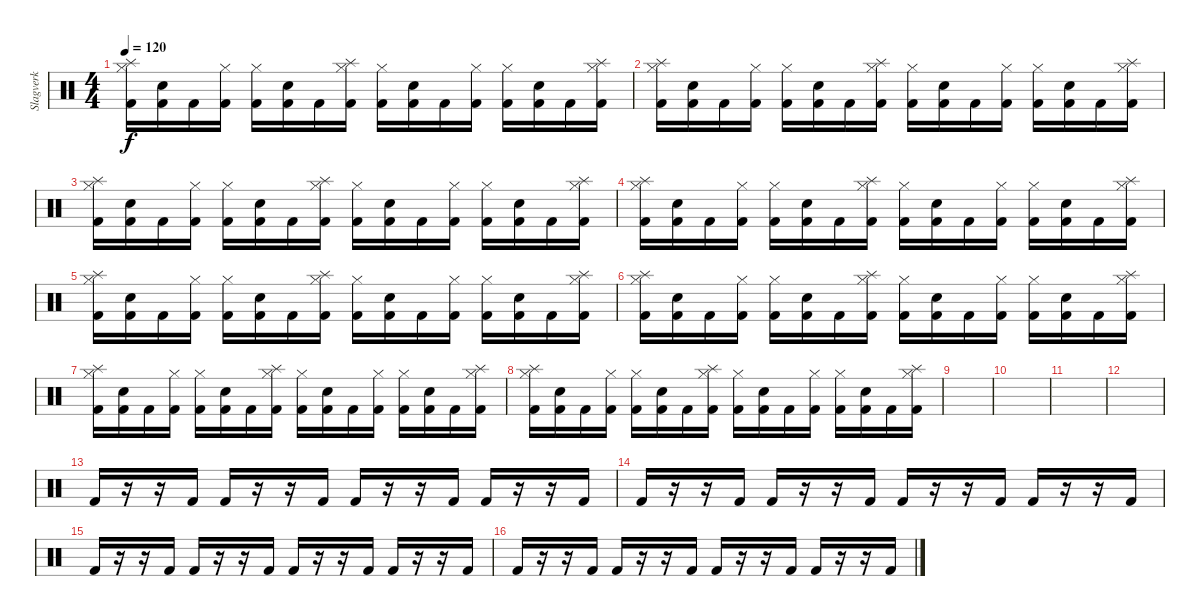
\track ("Slagverk" "Slagverk") {instrument percussion}
\staff {score}
\articulation defaults
\ts (4 4)
\tempo 120
\clef neutral
\ks c
("Kick (hit) 2" "Hi-Hat (closed)" "Splash (hit)").16{dy f} ("Kick (hit) 2" "Electric Snare (hit)").16 "Kick (hit) 2".16 ("Kick (hit) 2" "Hi-Hat (closed)").16 ("Kick (hit) 2" "Hi-Hat (closed)").16 ("Kick (hit) 2" "Electric Snare (hit)").16 "Kick (hit) 2".16 ("Kick (hit) 2" "Hi-Hat (closed)" "Splash (hit)").16 ("Kick (hit) 2" "Hi-Hat (closed)").16 ("Kick (hit) 2" "Electric Snare (hit)").16 "Kick (hit) 2".16 ("Kick (hit) 2" "Hi-Hat (closed)").16 ("Kick (hit) 2" "Hi-Hat (closed)").16 ("Kick (hit) 2" "Electric Snare (hit)").16 "Kick (hit) 2".16 ("Kick (hit) 2" "Hi-Hat (closed)" "Splash (hit)").16 |
("Kick (hit) 2" "Hi-Hat (closed)" "Splash (hit)").16 ("Kick (hit) 2" "Electric Snare (hit)").16 "Kick (hit) 2".16 ("Kick (hit) 2" "Hi-Hat (closed)").16 ("Kick (hit) 2" "Hi-Hat (closed)").16 ("Kick (hit) 2" "Electric Snare (hit)").16 "Kick (hit) 2".16 ("Kick (hit) 2" "Hi-Hat (closed)" "Splash (hit)").16 ("Kick (hit) 2" "Hi-Hat (closed)").16 ("Kick (hit) 2" "Electric Snare (hit)").16 "Kick (hit) 2".16 ("Kick (hit) 2" "Hi-Hat (closed)").16 ("Kick (hit) 2" "Hi-Hat (closed)").16 ("Kick (hit) 2" "Electric Snare (hit)").16 "Kick (hit) 2".16 ("Kick (hit) 2" "Hi-Hat (closed)" "Splash (hit)").16 |
("Kick (hit) 2" "Hi-Hat (closed)" "Splash (hit)").16 ("Kick (hit) 2" "Electric Snare (hit)").16 "Kick (hit) 2".16 ("Kick (hit) 2" "Hi-Hat (closed)").16 ("Kick (hit) 2" "Hi-Hat (closed)").16 ("Kick (hit) 2" "Electric Snare (hit)").16 "Kick (hit) 2".16 ("Kick (hit) 2" "Hi-Hat (closed)" "Splash (hit)").16 ("Kick (hit) 2" "Hi-Hat (closed)").16 ("Kick (hit) 2" "Electric Snare (hit)").16 "Kick (hit) 2".16 ("Kick (hit) 2" "Hi-Hat (closed)").16 ("Kick (hit) 2" "Hi-Hat (closed)").16 ("Kick (hit) 2" "Electric Snare (hit)").16 "Kick (hit) 2".16 ("Kick (hit) 2" "Hi-Hat (closed)" "Splash (hit)").16 |
("Kick (hit) 2" "Hi-Hat (closed)" "Splash (hit)").16 ("Kick (hit) 2" "Electric Snare (hit)").16 "Kick (hit) 2".16 ("Kick (hit) 2" "Hi-Hat (closed)").16 ("Kick (hit) 2" "Hi-Hat (closed)").16 ("Kick (hit) 2" "Electric Snare (hit)").16 "Kick (hit) 2".16 ("Kick (hit) 2" "Hi-Hat (closed)" "Splash (hit)").16 ("Kick (hit) 2" "Hi-Hat (closed)").16 ("Kick (hit) 2" "Electric Snare (hit)").16 "Kick (hit) 2".16 ("Kick (hit) 2" "Hi-Hat (closed)").16 ("Kick (hit) 2" "Hi-Hat (closed)").16 ("Kick (hit) 2" "Electric Snare (hit)").16 "Kick (hit) 2".16 ("Kick (hit) 2" "Hi-Hat (closed)" "Splash (hit)").16 |
("Kick (hit) 2" "Hi-Hat (closed)" "Splash (hit)").16 ("Kick (hit) 2" "Electric Snare (hit)").16 "Kick (hit) 2".16 ("Kick (hit) 2" "Hi-Hat (closed)").16 ("Kick (hit) 2" "Hi-Hat (closed)").16 ("Kick (hit) 2" "Electric Snare (hit)").16 "Kick (hit) 2".16 ("Kick (hit) 2" "Hi-Hat (closed)" "Splash (hit)").16 ("Kick (hit) 2" "Hi-Hat (closed)").16 ("Kick (hit) 2" "Electric Snare (hit)").16 "Kick (hit) 2".16 ("Kick (hit) 2" "Hi-Hat (closed)").16 ("Kick (hit) 2" "Hi-Hat (closed)").16 ("Kick (hit) 2" "Electric Snare (hit)").16 "Kick (hit) 2".16 ("Kick (hit) 2" "Hi-Hat (closed)" "Splash (hit)").16 |
("Kick (hit) 2" "Hi-Hat (closed)" "Splash (hit)").16 ("Kick (hit) 2" "Electric Snare (hit)").16 "Kick (hit) 2".16 ("Kick (hit) 2" "Hi-Hat (closed)").16 ("Kick (hit) 2" "Hi-Hat (closed)").16 ("Kick (hit) 2" "Electric Snare (hit)").16 "Kick (hit) 2".16 ("Kick (hit) 2" "Hi-Hat (closed)" "Splash (hit)").16 ("Kick (hit) 2" "Hi-Hat (closed)").16 ("Kick (hit) 2" "Electric Snare (hit)").16 "Kick (hit) 2".16 ("Kick (hit) 2" "Hi-Hat (closed)").16 ("Kick (hit) 2" "Hi-Hat (closed)").16 ("Kick (hit) 2" "Electric Snare (hit)").16 "Kick (hit) 2".16 ("Kick (hit) 2" "Hi-Hat (closed)" "Splash (hit)").16 |
("Kick (hit) 2" "Hi-Hat (closed)" "Splash (hit)").16 ("Kick (hit) 2" "Electric Snare (hit)").16 "Kick (hit) 2".16 ("Kick (hit) 2" "Hi-Hat (closed)").16 ("Kick (hit) 2" "Hi-Hat (closed)").16 ("Kick (hit) 2" "Electric Snare (hit)").16 "Kick (hit) 2".16 ("Kick (hit) 2" "Hi-Hat (closed)" "Splash (hit)").16 ("Kick (hit) 2" "Hi-Hat (closed)").16 ("Kick (hit) 2" "Electric Snare (hit)").16 "Kick (hit) 2".16 ("Kick (hit) 2" "Hi-Hat (closed)").16 ("Kick (hit) 2" "Hi-Hat (closed)").16 ("Kick (hit) 2" "Electric Snare (hit)").16 "Kick (hit) 2".16 ("Kick (hit) 2" "Hi-Hat (closed)" "Splash (hit)").16 |
("Kick (hit) 2" "Hi-Hat (closed)" "Splash (hit)").16 ("Kick (hit) 2" "Electric Snare (hit)").16 "Kick (hit) 2".16 ("Kick (hit) 2" "Hi-Hat (closed)").16 ("Kick (hit) 2" "Hi-Hat (closed)").16 ("Kick (hit) 2" "Electric Snare (hit)").16 "Kick (hit) 2".16 ("Kick (hit) 2" "Hi-Hat (closed)" "Splash (hit)").16 ("Kick (hit) 2" "Hi-Hat (closed)").16 ("Kick (hit) 2" "Electric Snare (hit)").16 "Kick (hit) 2".16 ("Kick (hit) 2" "Hi-Hat (closed)").16 ("Kick (hit) 2" "Hi-Hat (closed)").16 ("Kick (hit) 2" "Electric Snare (hit)").16 "Kick (hit) 2".16 ("Kick (hit) 2" "Hi-Hat (closed)" "Splash (hit)").16 |
|
|
|
|
"Kick (hit) 2".16 r.16 r.16 "Kick (hit) 2".16 "Kick (hit) 2".16 r.16 r.16 "Kick (hit) 2".16 "Kick (hit) 2".16 r.16 r.16 "Kick (hit) 2".16 "Kick (hit) 2".16 r.16 r.16 "Kick (hit) 2".16 |
"Kick (hit) 2".16 r.16 r.16 "Kick (hit) 2".16 "Kick (hit) 2".16 r.16 r.16 "Kick (hit) 2".16 "Kick (hit) 2".16 r.16 r.16 "Kick (hit) 2".16 "Kick (hit) 2".16 r.16 r.16 "Kick (hit) 2".16 |
"Kick (hit) 2".16 r.16 r.16 "Kick (hit) 2".16 "Kick (hit) 2".16 r.16 r.16 "Kick (hit) 2".16 "Kick (hit) 2".16 r.16 r.16 "Kick (hit) 2".16 "Kick (hit) 2".16 r.16 r.16 "Kick (hit) 2".16 |
"Kick (hit) 2".16 r.16 r.16 "Kick (hit) 2".16 "Kick (hit) 2".16 r.16 r.16 "Kick (hit) 2".16 "Kick (hit) 2".16 r.16 r.16 "Kick (hit) 2".16 "Kick (hit) 2".16 r.16 r.16 "Kick (hit) 2".16
